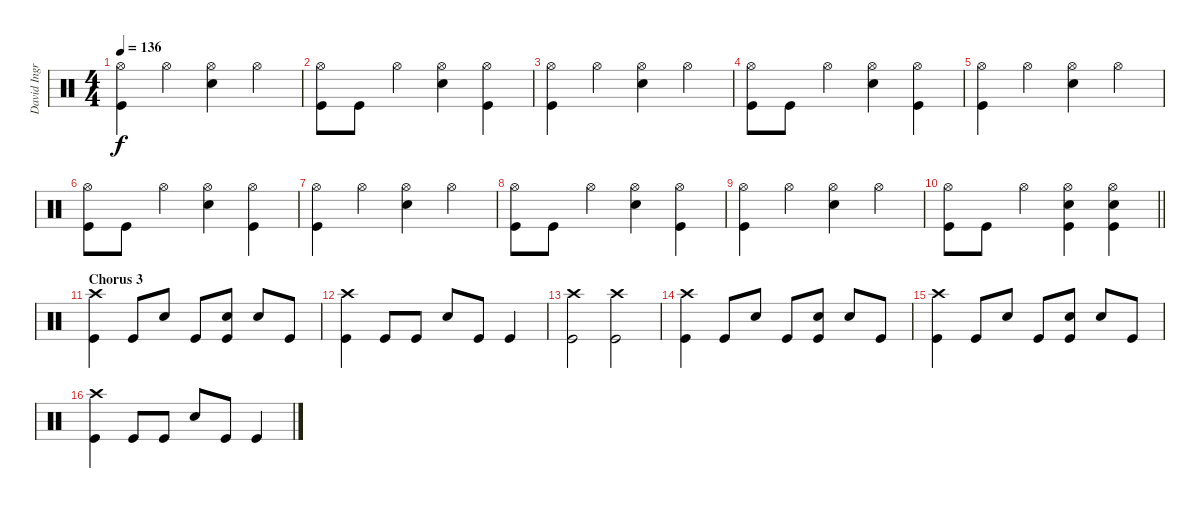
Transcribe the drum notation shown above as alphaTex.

\track ("David Ingraham" "David Ingr") {instrument percussion}
\staff {score}
\articulation defaults
\ts (4 4)
\tempo 136
\clef neutral
\ks c
("Hi-Hat (open)" "Kick (hit)").4{dy f} "Hi-Hat (open)".4 ("Hi-Hat (open)" "Snare (hit) 2").4 "Hi-Hat (open)".4 |
("Hi-Hat (open)" "Kick (hit)").8 "Kick (hit)".8 "Hi-Hat (open)".4 ("Hi-Hat (open)" "Snare (hit) 2").4 ("Hi-Hat (open)" "Kick (hit)").4 |
("Hi-Hat (open)" "Kick (hit)").4 "Hi-Hat (open)".4 ("Hi-Hat (open)" "Snare (hit) 2").4 "Hi-Hat (open)".4 |
("Hi-Hat (open)" "Kick (hit)").8 "Kick (hit)".8 "Hi-Hat (open)".4 ("Hi-Hat (open)" "Snare (hit) 2").4 ("Hi-Hat (open)" "Kick (hit)").4 |
("Hi-Hat (open)" "Kick (hit)").4 "Hi-Hat (open)".4 ("Hi-Hat (open)" "Snare (hit) 2").4 "Hi-Hat (open)".4 |
("Hi-Hat (open)" "Kick (hit)").8 "Kick (hit)".8 "Hi-Hat (open)".4 ("Hi-Hat (open)" "Snare (hit) 2").4 ("Hi-Hat (open)" "Kick (hit)").4 |
("Hi-Hat (open)" "Kick (hit)").4 "Hi-Hat (open)".4 ("Hi-Hat (open)" "Snare (hit) 2").4 "Hi-Hat (open)".4 |
("Hi-Hat (open)" "Kick (hit)").8 "Kick (hit)".8 "Hi-Hat (open)".4 ("Hi-Hat (open)" "Snare (hit) 2").4 ("Hi-Hat (open)" "Kick (hit)").4 |
("Hi-Hat (open)" "Kick (hit)").4 "Hi-Hat (open)".4 ("Hi-Hat (open)" "Snare (hit) 2").4 "Hi-Hat (open)".4 |
\barLineRight lightlight
("Hi-Hat (open)" "Kick (hit)").8 "Kick (hit)".8 "Hi-Hat (open)".4 ("Hi-Hat (open)" "Snare (hit) 2" "Kick (hit)").4 ("Hi-Hat (open)" "Snare (hit) 2" "Kick (hit)").4 |
\section ("" "Chorus 3")
("Crash high (hit)" "Kick (hit)").4 "Kick (hit)".8 "Snare (hit) 2".8 "Kick (hit)".8 ("Snare (hit) 2" "Kick (hit)").8 "Snare (hit) 2".8 "Kick (hit)".8 |
("Crash high (hit)" "Kick (hit)").4 "Kick (hit)".8 "Kick (hit)".8 "Snare (hit) 2".8 "Kick (hit)".8 "Kick (hit)".4 |
("Crash high (hit)" "Kick (hit)").2 ("Crash high (hit)" "Kick (hit)").2 |
("Crash high (hit)" "Kick (hit)").4 "Kick (hit)".8 "Snare (hit) 2".8 "Kick (hit)".8 ("Snare (hit) 2" "Kick (hit)").8 "Snare (hit) 2".8 "Kick (hit)".8 |
("Crash high (hit)" "Kick (hit)").4 "Kick (hit)".8 "Snare (hit) 2".8 "Kick (hit)".8 ("Snare (hit) 2" "Kick (hit)").8 "Snare (hit) 2".8 "Kick (hit)".8 |
("Crash high (hit)" "Kick (hit)").4 "Kick (hit)".8 "Kick (hit)".8 "Snare (hit) 2".8 "Kick (hit)".8 "Kick (hit)".4
